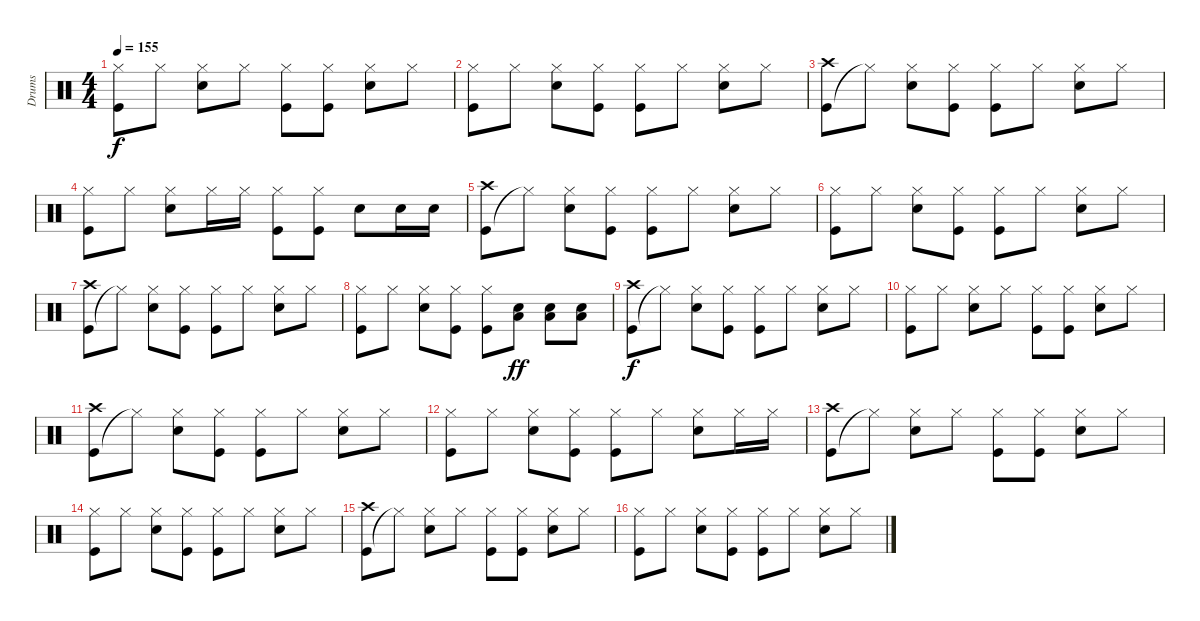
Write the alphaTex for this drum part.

\track ("Drums" "Drums") {instrument percussion}
\staff {score}
\articulation defaults
\ts (4 4)
\tempo 155
\clef neutral
\ks c
("Kick (hit)" "Hi-Hat (closed)").8{dy f} "Hi-Hat (closed)".8 ("Snare (hit) 2" "Hi-Hat (closed)").8 "Hi-Hat (closed)".8 ("Kick (hit)" "Hi-Hat (closed)").8 ("Kick (hit)" "Hi-Hat (closed)").8 ("Snare (hit) 2" "Hi-Hat (closed)").8 "Hi-Hat (closed)".8 |
("Kick (hit)" "Hi-Hat (closed)").8 "Hi-Hat (closed)".8 ("Snare (hit) 2" "Hi-Hat (closed)").8 ("Kick (hit)" "Hi-Hat (closed)").8 ("Kick (hit)" "Hi-Hat (closed)").8 "Hi-Hat (closed)".8 ("Snare (hit) 2" "Hi-Hat (closed)").8 "Hi-Hat (closed)".8 |
("Kick (hit)" "Crash high (hit)").8 "Hi-Hat (closed)"{t}.8 ("Snare (hit) 2" "Hi-Hat (closed)").8 ("Kick (hit)" "Hi-Hat (closed)").8 ("Kick (hit)" "Hi-Hat (closed)").8 "Hi-Hat (closed)".8 ("Snare (hit) 2" "Hi-Hat (closed)").8 "Hi-Hat (closed)".8 |
("Kick (hit)" "Hi-Hat (closed)").8 "Hi-Hat (closed)".8 ("Snare (hit) 2" "Hi-Hat (closed)").8 "Hi-Hat (closed)".16 "Hi-Hat (closed)".16 ("Kick (hit)" "Hi-Hat (closed)").8 ("Kick (hit)" "Hi-Hat (closed)").8 "Snare (hit) 2".8 "Snare (hit) 2".16 "Snare (hit) 2".16 |
("Kick (hit)" "Crash high (hit)").8 "Hi-Hat (closed)"{t}.8 ("Snare (hit) 2" "Hi-Hat (closed)").8 ("Kick (hit)" "Hi-Hat (closed)").8 ("Kick (hit)" "Hi-Hat (closed)").8 "Hi-Hat (closed)".8 ("Snare (hit) 2" "Hi-Hat (closed)").8 "Hi-Hat (closed)".8 |
("Kick (hit)" "Hi-Hat (closed)").8 "Hi-Hat (closed)".8 ("Snare (hit) 2" "Hi-Hat (closed)").8 ("Kick (hit)" "Hi-Hat (closed)").8 ("Kick (hit)" "Hi-Hat (closed)").8 "Hi-Hat (closed)".8 ("Snare (hit) 2" "Hi-Hat (closed)").8 "Hi-Hat (closed)".8 |
("Kick (hit)" "Crash high (hit)").8 "Hi-Hat (closed)"{t}.8 ("Snare (hit) 2" "Hi-Hat (closed)").8 ("Kick (hit)" "Hi-Hat (closed)").8 ("Kick (hit)" "Hi-Hat (closed)").8 "Hi-Hat (closed)".8 ("Snare (hit) 2" "Hi-Hat (closed)").8 "Hi-Hat (closed)".8 |
("Kick (hit)" "Hi-Hat (closed)").8 "Hi-Hat (closed)".8 ("Snare (hit) 2" "Hi-Hat (closed)").8 ("Kick (hit)" "Hi-Hat (closed)").8 ("Kick (hit)" "Hi-Hat (closed)").8 ("Snare (hit) 2" "Low Floor Tom (hit)").8{dy ff} ("Snare (hit) 2" "Low Floor Tom (hit)").8 ("Snare (hit) 2" "Low Floor Tom (hit)").8 |
("Kick (hit)" "Crash high (hit)").8{dy f} "Hi-Hat (closed)"{t}.8 ("Snare (hit) 2" "Hi-Hat (closed)").8 ("Kick (hit)" "Hi-Hat (closed)").8 ("Kick (hit)" "Hi-Hat (closed)").8 "Hi-Hat (closed)".8 ("Snare (hit) 2" "Hi-Hat (closed)").8 "Hi-Hat (closed)".8 |
("Kick (hit)" "Hi-Hat (closed)").8 "Hi-Hat (closed)".8 ("Snare (hit) 2" "Hi-Hat (closed)").8 "Hi-Hat (closed)".8 ("Kick (hit)" "Hi-Hat (closed)").8 ("Kick (hit)" "Hi-Hat (closed)").8 ("Snare (hit) 2" "Hi-Hat (closed)").8 "Hi-Hat (closed)".8 |
("Kick (hit)" "Crash high (hit)").8 "Hi-Hat (closed)"{t}.8 ("Snare (hit) 2" "Hi-Hat (closed)").8 ("Kick (hit)" "Hi-Hat (closed)").8 ("Kick (hit)" "Hi-Hat (closed)").8 "Hi-Hat (closed)".8 ("Snare (hit) 2" "Hi-Hat (closed)").8 "Hi-Hat (closed)".8 |
("Kick (hit)" "Hi-Hat (closed)").8 "Hi-Hat (closed)".8 ("Snare (hit) 2" "Hi-Hat (closed)").8 ("Kick (hit)" "Hi-Hat (closed)").8 ("Kick (hit)" "Hi-Hat (closed)").8 "Hi-Hat (closed)".8 ("Snare (hit) 2" "Hi-Hat (closed)").8 "Hi-Hat (closed)".16 "Hi-Hat (closed)".16 |
("Kick (hit)" "Crash high (hit)").8 "Hi-Hat (closed)"{t}.8 ("Snare (hit) 2" "Hi-Hat (closed)").8 "Hi-Hat (closed)".8 ("Kick (hit)" "Hi-Hat (closed)").8 ("Kick (hit)" "Hi-Hat (closed)").8 ("Snare (hit) 2" "Hi-Hat (closed)").8 "Hi-Hat (closed)".8 |
("Kick (hit)" "Hi-Hat (closed)").8 "Hi-Hat (closed)".8 ("Snare (hit) 2" "Hi-Hat (closed)").8 ("Kick (hit)" "Hi-Hat (closed)").8 ("Kick (hit)" "Hi-Hat (closed)").8 "Hi-Hat (closed)".8 ("Snare (hit) 2" "Hi-Hat (closed)").8 "Hi-Hat (closed)".8 |
("Kick (hit)" "Crash high (hit)").8 "Hi-Hat (closed)"{t}.8 ("Snare (hit) 2" "Hi-Hat (closed)").8 "Hi-Hat (closed)".8 ("Kick (hit)" "Hi-Hat (closed)").8 ("Kick (hit)" "Hi-Hat (closed)").8 ("Snare (hit) 2" "Hi-Hat (closed)").8 "Hi-Hat (closed)".8 |
("Kick (hit)" "Hi-Hat (closed)").8 "Hi-Hat (closed)".8 ("Snare (hit) 2" "Hi-Hat (closed)").8 ("Kick (hit)" "Hi-Hat (closed)").8 ("Kick (hit)" "Hi-Hat (closed)").8 "Hi-Hat (closed)".8 ("Snare (hit) 2" "Hi-Hat (closed)").8 "Hi-Hat (closed)".8
